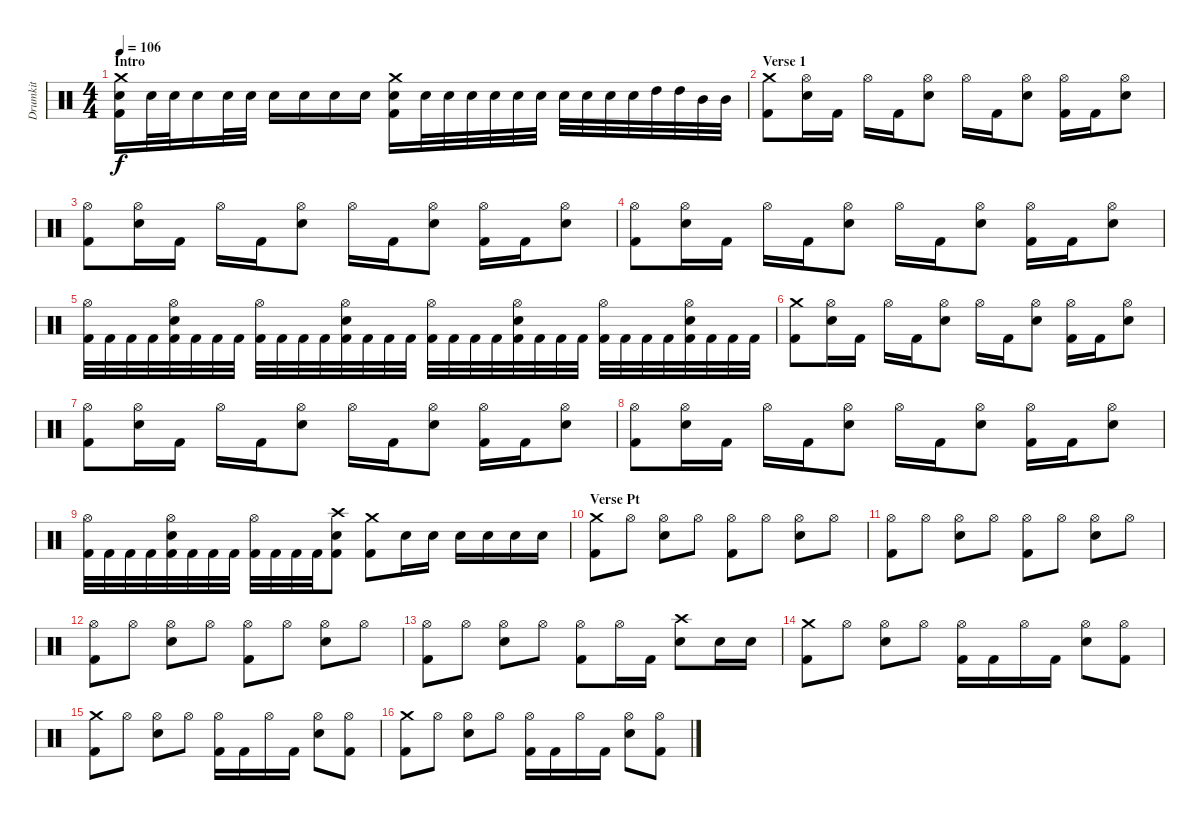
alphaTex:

\track ("Drumkit" "Drumkit") {instrument percussion}
\staff {score}
\articulation defaults
\ts (4 4)
\section ("" "Intro")
\tempo 106
\clef neutral
\ks c
("Crash medium (hit)" "Snare (hit) 2" "Kick (hit) 2").16{dy f} "Snare (hit) 2".32 "Snare (hit) 2".32 "Snare (hit) 2".16 "Snare (hit) 2".32 "Snare (hit) 2".32 "Snare (hit) 2".16 "Snare (hit) 2".16 "Snare (hit) 2".16 "Snare (hit) 2".16 ("Crash medium (hit)" "Snare (hit) 2" "Kick (hit) 2").16 "Snare (hit) 2".32 "Snare (hit) 2".32 "Snare (hit) 2".32 "Snare (hit) 2".32 "Snare (hit) 2".32 "Snare (hit) 2".32 "Snare (hit) 2".32 "Snare (hit) 2".32 "Snare (hit) 2".32 "Snare (hit) 2".32 "High Tom (hit)".32 "High Tom (hit)".32 "Mid Tom (hit)".32 "Mid Tom (hit)".32 |
\section ("" "Verse 1")
("Crash medium (hit)" "Kick (hit) 2").8 ("Hi-Hat (open)" "Snare (hit) 2").16 "Kick (hit) 2".16 "Hi-Hat (open)".16 "Kick (hit) 2".16 ("Hi-Hat (open)" "Snare (hit) 2").8 "Hi-Hat (open)".16 "Kick (hit) 2".16 ("Hi-Hat (open)" "Snare (hit) 2").8 ("Hi-Hat (open)" "Kick (hit) 2").16 "Kick (hit) 2".16 ("Hi-Hat (open)" "Snare (hit) 2").8 |
("Hi-Hat (open)" "Kick (hit) 2").8 ("Hi-Hat (open)" "Snare (hit) 2").16 "Kick (hit) 2".16 "Hi-Hat (open)".16 "Kick (hit) 2".16 ("Hi-Hat (open)" "Snare (hit) 2").8 "Hi-Hat (open)".16 "Kick (hit) 2".16 ("Hi-Hat (open)" "Snare (hit) 2").8 ("Hi-Hat (open)" "Kick (hit) 2").16 "Kick (hit) 2".16 ("Hi-Hat (open)" "Snare (hit) 2").8 |
("Hi-Hat (open)" "Kick (hit) 2").8 ("Hi-Hat (open)" "Snare (hit) 2").16 "Kick (hit) 2".16 "Hi-Hat (open)".16 "Kick (hit) 2".16 ("Hi-Hat (open)" "Snare (hit) 2").8 "Hi-Hat (open)".16 "Kick (hit) 2".16 ("Hi-Hat (open)" "Snare (hit) 2").8 ("Hi-Hat (open)" "Kick (hit) 2").16 "Kick (hit) 2".16 ("Hi-Hat (open)" "Snare (hit) 2").8 |
("Hi-Hat (open)" "Kick (hit) 2").32 "Kick (hit) 2".32 "Kick (hit) 2".32 "Kick (hit) 2".32 ("Hi-Hat (open)" "Snare (hit) 2" "Kick (hit) 2").32 "Kick (hit) 2".32 "Kick (hit) 2".32 "Kick (hit) 2".32 ("Hi-Hat (open)" "Kick (hit) 2").32 "Kick (hit) 2".32 "Kick (hit) 2".32 "Kick (hit) 2".32 ("Hi-Hat (open)" "Snare (hit) 2" "Kick (hit) 2").32 "Kick (hit) 2".32 "Kick (hit) 2".32 "Kick (hit) 2".32 ("Hi-Hat (open)" "Kick (hit) 2").32 "Kick (hit) 2".32 "Kick (hit) 2".32 "Kick (hit) 2".32 ("Hi-Hat (open)" "Snare (hit) 2" "Kick (hit) 2").32 "Kick (hit) 2".32 "Kick (hit) 2".32 "Kick (hit) 2".32 ("Hi-Hat (open)" "Kick (hit) 2").32 "Kick (hit) 2".32 "Kick (hit) 2".32 "Kick (hit) 2".32 ("Hi-Hat (open)" "Snare (hit) 2" "Kick (hit) 2").32 "Kick (hit) 2".32 "Kick (hit) 2".32 "Kick (hit) 2".32 |
("Crash medium (hit)" "Kick (hit) 2").8 ("Hi-Hat (open)" "Snare (hit) 2").16 "Kick (hit) 2".16 "Hi-Hat (open)".16 "Kick (hit) 2".16 ("Hi-Hat (open)" "Snare (hit) 2").8 "Hi-Hat (open)".16 "Kick (hit) 2".16 ("Hi-Hat (open)" "Snare (hit) 2").8 ("Hi-Hat (open)" "Kick (hit) 2").16 "Kick (hit) 2".16 ("Hi-Hat (open)" "Snare (hit) 2").8 |
("Hi-Hat (open)" "Kick (hit) 2").8 ("Hi-Hat (open)" "Snare (hit) 2").16 "Kick (hit) 2".16 "Hi-Hat (open)".16 "Kick (hit) 2".16 ("Hi-Hat (open)" "Snare (hit) 2").8 "Hi-Hat (open)".16 "Kick (hit) 2".16 ("Hi-Hat (open)" "Snare (hit) 2").8 ("Hi-Hat (open)" "Kick (hit) 2").16 "Kick (hit) 2".16 ("Hi-Hat (open)" "Snare (hit) 2").8 |
("Hi-Hat (open)" "Kick (hit) 2").8 ("Hi-Hat (open)" "Snare (hit) 2").16 "Kick (hit) 2".16 "Hi-Hat (open)".16 "Kick (hit) 2".16 ("Hi-Hat (open)" "Snare (hit) 2").8 "Hi-Hat (open)".16 "Kick (hit) 2".16 ("Hi-Hat (open)" "Snare (hit) 2").8 ("Hi-Hat (open)" "Kick (hit) 2").16 "Kick (hit) 2".16 ("Hi-Hat (open)" "Snare (hit) 2").8 |
("Hi-Hat (open)" "Kick (hit) 2").32 "Kick (hit) 2".32 "Kick (hit) 2".32 "Kick (hit) 2".32 ("Hi-Hat (open)" "Snare (hit) 2" "Kick (hit) 2").32 "Kick (hit) 2".32 "Kick (hit) 2".32 "Kick (hit) 2".32 ("Hi-Hat (open)" "Kick (hit) 2").32 "Kick (hit) 2".32 "Kick (hit) 2".32 "Kick (hit) 2".32 ("Crash high (hit)" "Snare (hit) 2" "Kick (hit) 2").8 ("Crash medium (hit)" "Kick (hit) 2").8 "Snare (hit) 2".16 "Snare (hit) 2".16 "Snare (hit) 2".16 "Snare (hit) 2".16 "Snare (hit) 2".16 "Snare (hit) 2".16 |
\section ("" "Verse Pt")
("Crash medium (hit)" "Kick (hit) 2").8 "Hi-Hat (open)".8 ("Hi-Hat (open)" "Snare (hit) 2").8 "Hi-Hat (open)".8 ("Hi-Hat (open)" "Kick (hit) 2").8 "Hi-Hat (open)".8 ("Hi-Hat (open)" "Snare (hit) 2").8 "Hi-Hat (open)".8 |
("Hi-Hat (open)" "Kick (hit) 2").8 "Hi-Hat (open)".8 ("Hi-Hat (open)" "Snare (hit) 2").8 "Hi-Hat (open)".8 ("Hi-Hat (open)" "Kick (hit) 2").8 "Hi-Hat (open)".8 ("Hi-Hat (open)" "Snare (hit) 2").8 "Hi-Hat (open)".8 |
("Hi-Hat (open)" "Kick (hit) 2").8 "Hi-Hat (open)".8 ("Hi-Hat (open)" "Snare (hit) 2").8 "Hi-Hat (open)".8 ("Hi-Hat (open)" "Kick (hit) 2").8 "Hi-Hat (open)".8 ("Hi-Hat (open)" "Snare (hit) 2").8 "Hi-Hat (open)".8 |
("Hi-Hat (open)" "Kick (hit) 2").8 "Hi-Hat (open)".8 ("Hi-Hat (open)" "Snare (hit) 2").8 "Hi-Hat (open)".8 ("Hi-Hat (open)" "Kick (hit) 2").8 "Hi-Hat (open)".16 "Kick (hit) 2".16 ("Crash high (hit)" "Snare (hit) 2").8 "Snare (hit) 2".16 "Snare (hit) 2".16 |
("Crash medium (hit)" "Kick (hit) 2").8 "Hi-Hat (open)".8 ("Hi-Hat (open)" "Snare (hit) 2").8 "Hi-Hat (open)".8 ("Hi-Hat (open)" "Kick (hit) 2").16 "Kick (hit) 2".16 "Hi-Hat (open)".16 "Kick (hit) 2".16 ("Hi-Hat (open)" "Snare (hit) 2").8 ("Hi-Hat (open)" "Kick (hit) 2").8 |
("Crash medium (hit)" "Kick (hit) 2").8 "Hi-Hat (open)".8 ("Hi-Hat (open)" "Snare (hit) 2").8 "Hi-Hat (open)".8 ("Hi-Hat (open)" "Kick (hit) 2").16 "Kick (hit) 2".16 "Hi-Hat (open)".16 "Kick (hit) 2".16 ("Hi-Hat (open)" "Snare (hit) 2").8 ("Hi-Hat (open)" "Kick (hit) 2").8 |
("Crash medium (hit)" "Kick (hit) 2").8 "Hi-Hat (open)".8 ("Hi-Hat (open)" "Snare (hit) 2").8 "Hi-Hat (open)".8 ("Hi-Hat (open)" "Kick (hit) 2").16 "Kick (hit) 2".16 "Hi-Hat (open)".16 "Kick (hit) 2".16 ("Hi-Hat (open)" "Snare (hit) 2").8 ("Hi-Hat (open)" "Kick (hit) 2").8
